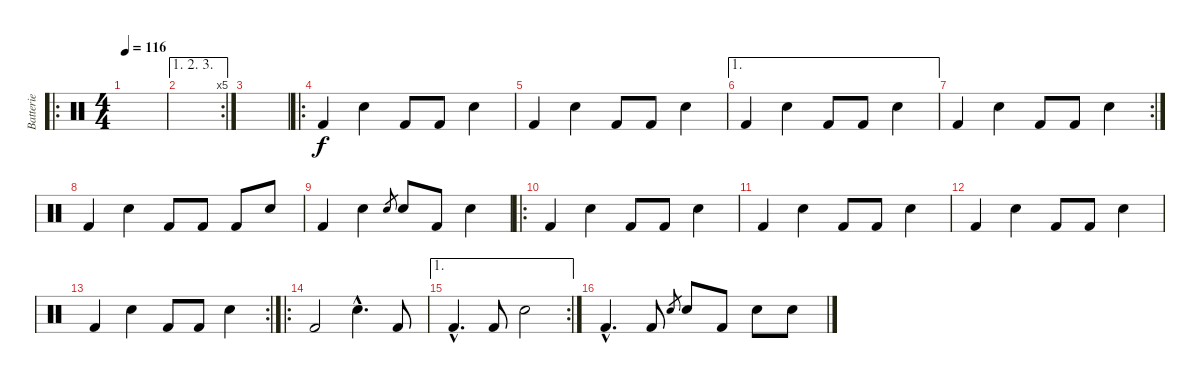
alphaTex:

\track ("Batterie" "Batterie") {instrument percussion}
\staff {score}
\articulation defaults
\ro
\ts (4 4)
\tempo 116
\clef neutral
\ks c
|
\ae (1 2 3)
\rc 5
|
|
\ro "Kick (hit) 2".4 "Snare (hit) 2".4 "Kick (hit) 2".8 "Kick (hit) 2".8 "Snare (hit) 2".4
|
"Kick (hit) 2".4 "Snare (hit) 2".4 "Kick (hit) 2".8 "Kick (hit) 2".8 "Snare (hit) 2".4 |
\ae 1 "Kick (hit) 2".4 "Snare (hit) 2".4 "Kick (hit) 2".8 "Kick (hit) 2".8 "Snare (hit) 2".4
|
\rc 2 "Kick (hit) 2".4 "Snare (hit) 2".4 "Kick (hit) 2".8 "Kick (hit) 2".8 "Snare (hit) 2".4
|
"Kick (hit) 2".4 "Snare (hit) 2".4 "Kick (hit) 2".8 "Kick (hit) 2".8 "Kick (hit) 2".8 "Snare (hit) 2".8 |
"Kick (hit) 2".4 "Snare (hit) 2".4 "Snare (hit) 2".8{gr} "Snare (hit) 2".8 "Kick (hit) 2".8 "Snare (hit) 2".4 |
\ro "Kick (hit) 2".4 "Snare (hit) 2".4 "Kick (hit) 2".8 "Kick (hit) 2".8 "Snare (hit) 2".4
|
"Kick (hit) 2".4 "Snare (hit) 2".4 "Kick (hit) 2".8 "Kick (hit) 2".8 "Snare (hit) 2".4 |
"Kick (hit) 2".4 "Snare (hit) 2".4 "Kick (hit) 2".8 "Kick (hit) 2".8 "Snare (hit) 2".4 |
\rc 2 "Kick (hit) 2".4 "Snare (hit) 2".4 "Kick (hit) 2".8 "Kick (hit) 2".8 "Snare (hit) 2".4
|
\ro "Kick (hit) 2".2 "Snare (hit) 2"{hac}.4{d} "Kick (hit) 2".8
|
\ae 1
\rc 2 "Kick (hit) 2"{hac}.4{d} "Kick (hit) 2".8 "Snare (hit) 2".2
|
"Kick (hit) 2"{hac}.4{d} "Kick (hit) 2".8 "Snare (hit) 2".8{gr} "Snare (hit) 2".8 "Kick (hit) 2".8 "Snare (hit) 2".8 "Snare (hit) 2".8
